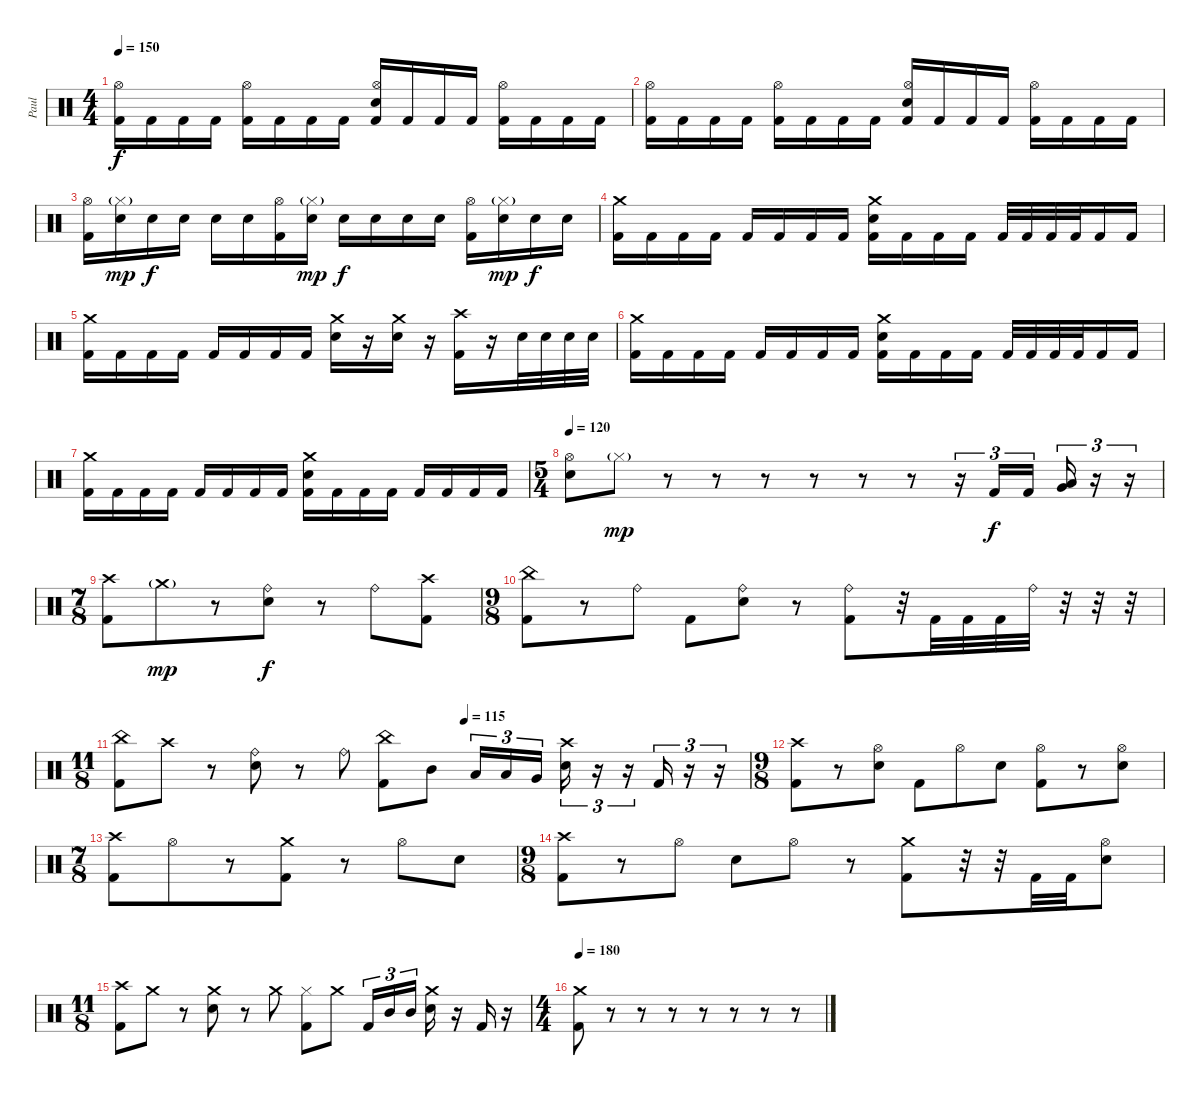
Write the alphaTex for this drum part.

\track ("Paul " "Paul ") {instrument percussion}
\staff {score}
\articulation defaults
\ts (4 4)
\tempo 150
\clef neutral
\ks c
("Kick (hit) 2" "Hi-Hat (open)").16{dy f} "Kick (hit) 2".16 "Kick (hit) 2".16 "Kick (hit) 2".16 ("Kick (hit) 2" "Hi-Hat (open)").16 "Kick (hit) 2".16 "Kick (hit) 2".16 "Kick (hit) 2".16 ("Kick (hit) 2" "Electric Snare (hit)" "Hi-Hat (open)").16 "Kick (hit) 2".16 "Kick (hit) 2".16 "Kick (hit) 2".16 ("Kick (hit) 2" "Hi-Hat (open)").16 "Kick (hit) 2".16 "Kick (hit) 2".16 "Kick (hit) 2".16 |
("Kick (hit) 2" "Hi-Hat (open)").16 "Kick (hit) 2".16 "Kick (hit) 2".16 "Kick (hit) 2".16 ("Kick (hit) 2" "Hi-Hat (open)").16 "Kick (hit) 2".16 "Kick (hit) 2".16 "Kick (hit) 2".16 ("Kick (hit) 2" "Electric Snare (hit)" "Hi-Hat (open)").16 "Kick (hit) 2".16 "Kick (hit) 2".16 "Kick (hit) 2".16 ("Kick (hit) 2" "Hi-Hat (open)").16 "Kick (hit) 2".16 "Kick (hit) 2".16 "Kick (hit) 2".16 |
("Kick (hit) 2" "Hi-Hat (open)").16 ("Electric Snare (hit)" "Hi-Hat (closed)"{g}).16{dy mp} "Electric Snare (hit)".16{dy f} "Electric Snare (hit)".16 "Electric Snare (hit)".16 "Electric Snare (hit)".16 ("Kick (hit) 2" "Hi-Hat (open)").16 ("Electric Snare (hit)" "Hi-Hat (closed)"{g}).16{dy mp} "Electric Snare (hit)".16{dy f} "Electric Snare (hit)".16 "Electric Snare (hit)".16 "Electric Snare (hit)".16 ("Kick (hit) 2" "Hi-Hat (open)").16 ("Electric Snare (hit)" "Hi-Hat (closed)"{g}).16{dy mp} "Electric Snare (hit)".16{dy f} "Electric Snare (hit)".16 |
("Kick (hit) 2" "Crash medium (hit)").16 "Kick (hit) 2".16 "Kick (hit) 2".16 "Kick (hit) 2".16 "Kick (hit) 2".16 "Kick (hit) 2".16 "Kick (hit) 2".16 "Kick (hit) 2".16 ("Kick (hit) 2" "Electric Snare (hit)" "Crash medium (hit)").16 "Kick (hit) 2".16 "Kick (hit) 2".16 "Kick (hit) 2".16 "Kick (hit) 2".32 "Kick (hit) 2".32 "Kick (hit) 2".32 "Kick (hit) 2".32 "Kick (hit) 2".16 "Kick (hit) 2".16 |
("Kick (hit) 2" "Crash medium (hit)").16 "Kick (hit) 2".16 "Kick (hit) 2".16 "Kick (hit) 2".16 "Kick (hit) 2".16 "Kick (hit) 2".16 "Kick (hit) 2".16 "Kick (hit) 2".16 ("Electric Snare (hit)" "Crash medium (hit)").16 r.16 ("Electric Snare (hit)" "Crash medium (hit)").16 r.16 ("Kick (hit) 2" "Crash high (hit)").16 r.16 "Electric Snare (hit)".32 "Electric Snare (hit)".32 "Electric Snare (hit)".32 "Electric Snare (hit)".32 |
("Kick (hit) 2" "Crash medium (hit)").16 "Kick (hit) 2".16 "Kick (hit) 2".16 "Kick (hit) 2".16 "Kick (hit) 2".16 "Kick (hit) 2".16 "Kick (hit) 2".16 "Kick (hit) 2".16 ("Kick (hit) 2" "Electric Snare (hit)" "Crash medium (hit)").16 "Kick (hit) 2".16 "Kick (hit) 2".16 "Kick (hit) 2".16 "Kick (hit) 2".32 "Kick (hit) 2".32 "Kick (hit) 2".32 "Kick (hit) 2".32 "Kick (hit) 2".16 "Kick (hit) 2".16 |
("Kick (hit) 2" "Crash medium (hit)").16 "Kick (hit) 2".16 "Kick (hit) 2".16 "Kick (hit) 2".16 "Kick (hit) 2".16 "Kick (hit) 2".16 "Kick (hit) 2".16 "Kick (hit) 2".16 ("Kick (hit) 2" "Electric Snare (hit)" "Crash medium (hit)").16 "Kick (hit) 2".16 "Kick (hit) 2".16 "Kick (hit) 2".16 "Kick (hit) 2".16 "Kick (hit) 2".16 "Kick (hit) 2".16 "Kick (hit) 2".16 |
\ts (5 4)
\tempo 120
("Electric Snare (hit)" "Hi-Hat (open)").8 "Hi-Hat (closed)"{g}.8{dy mp} r.8 r.8 r.8 r.8 r.8 r.8 r.16{tu (3 2)} "Kick (hit) 2".16{tu (3 2) dy f} "Kick (hit) 2".16{tu (3 2) beam splitsecondary} ("Very Low Tom (hit)" "Low Floor Tom (hit)").16{tu (3 2)} r.16{tu (3 2)} r.16{tu (3 2)} |
\ts (7 8)
("Crash high (hit)" "Kick (hit) 2").8 "Crash medium (hit)"{g}.8{dy mp} r.8 ("Electric Snare (hit)" "Ride (bell)").8{dy f} r.8 "Ride (bell)".8 ("Crash high (hit)" "Kick (hit) 2").8 |
\ts (9 8)
("China (hit)" "Kick (hit) 2").8 r.8 "Ride (bell)".8 "Kick (hit) 2".8 ("Electric Snare (hit)" "Ride (bell)").8 r.8 ("Kick (hit) 2" "Ride (bell)").8 r.32 "Kick (hit) 2".32 "Kick (hit) 2".32 "Kick (hit) 2".32 "Ride (bell)".32 r.32 r.32 r.32 |
\ts (11 8)
\tempo (115 0.5454545454545454)
("China (hit)" "Kick (hit) 2").8 "Crash high (hit)".8 r.8 ("Electric Snare (hit)" "Ride (bell)").8 r.8 "Ride (bell)".8 ("China (hit)" "Kick (hit) 2").8 "Mid Tom (hit)".8 "Low Tom (hit)".16{tu (3 2)} "Low Tom (hit)".16{tu (3 2)} "Very Low Tom (hit)".16{tu (3 2)} ("Electric Snare (hit)" "Crash high (hit)").16{tu (3 2)} r.16{tu (3 2)} r.16{tu (3 2)} "Kick (hit) 2".16{tu (3 2)} r.16{tu (3 2)} r.16{tu (3 2)} |
\ts (9 8)
("Kick (hit) 2" "Crash high (hit)").8 r.8 ("Electric Snare (hit)" "Hi-Hat (open)").8 "Kick (hit) 2".8 "Hi-Hat (open)".8 "Electric Snare (hit)".8 ("Kick (hit) 2" "Hi-Hat (open)").8 r.8 ("Electric Snare (hit)" "Hi-Hat (open)").8 |
\ts (7 8)
("Kick (hit) 2" "Crash high (hit)").8 "Hi-Hat (open)".8 r.8 ("Kick (hit) 2" "Crash medium (hit)").8 r.8 "Hi-Hat (open)".8 "Electric Snare (hit)".8 |
\ts (9 8)
("Kick (hit) 2" "Crash high (hit)").8 r.8 "Hi-Hat (open)".8 "Electric Snare (hit)".8 "Hi-Hat (open)".8 r.8 ("Kick (hit) 2" "Crash medium (hit)").8 r.32 r.32 "Kick (hit) 2".32 "Kick (hit) 2".32 ("Electric Snare (hit)" "Hi-Hat (open)").8 |
\ts (11 8)
("Kick (hit) 2" "Crash high (hit)").8 "Crash medium (hit)".8 r.8 ("Electric Snare (hit)" "Crash medium (hit)").8 r.8 "Crash medium (hit)".8 ("Kick (hit) 2" "Hi-Hat (closed)").8 "Crash medium (hit)".8 "Kick (hit) 2".16{tu (3 2)} "Mid Tom (hit)".16{tu (3 2)} "Mid Tom (hit)".16{tu (3 2)} ("Electric Snare (hit)" "Crash medium (hit)").16 r.16 "Kick (hit) 2".16 r.16 |
\ts (4 4)
\tempo 180
("Kick (hit) 2" "Crash medium (hit)").8 r.8{volume 0} r.8 r.8 r.8 r.8 r.8 r.8
